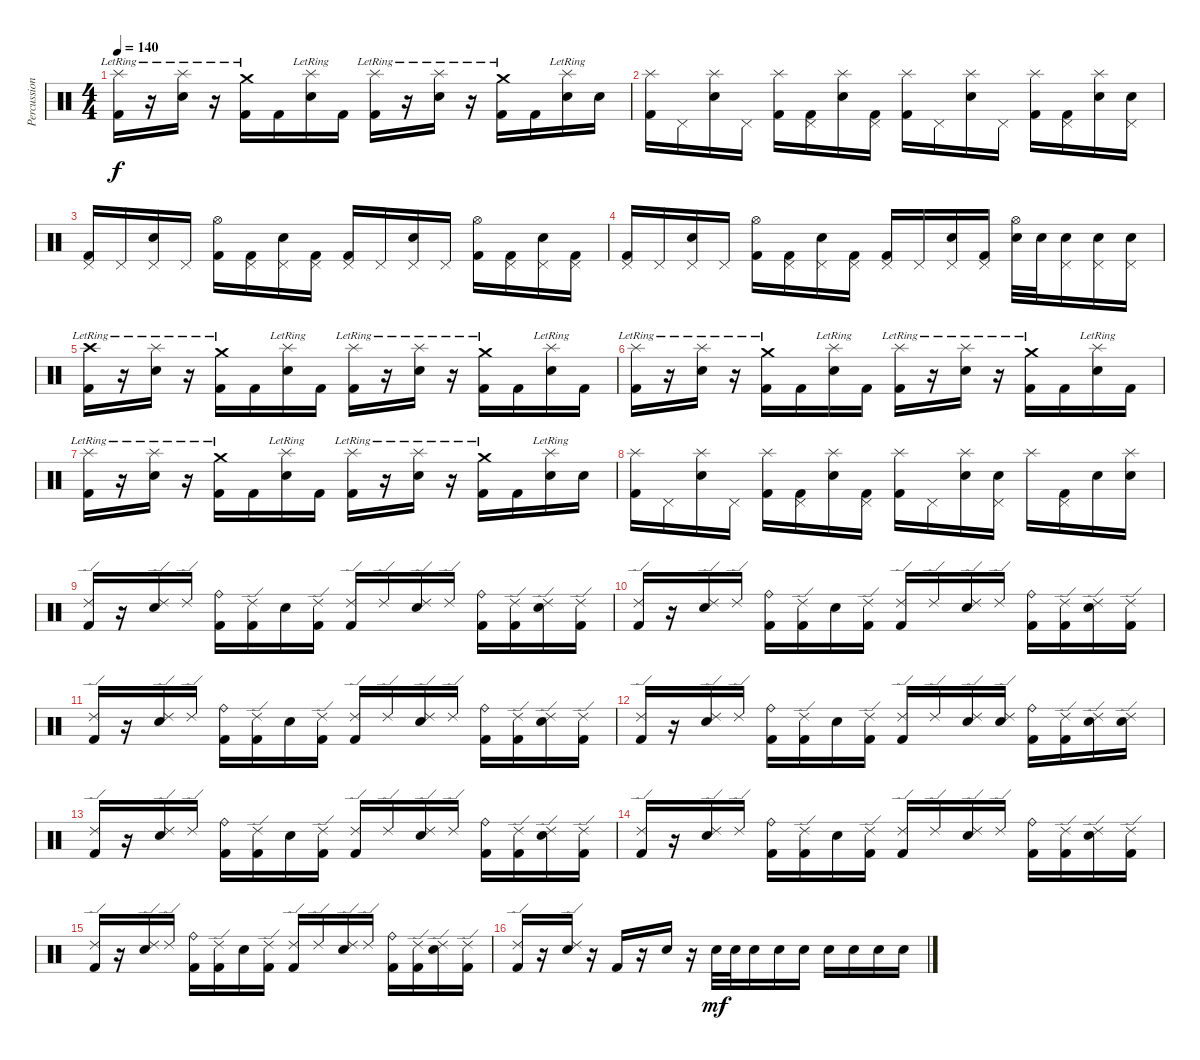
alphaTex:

\track ("Percussion" "Percussion") {instrument percussion}
\staff {score}
\articulation defaults
\ts (4 4)
\tempo 140
\clef neutral
\ks c
("Splash (hit)"{lr} "Kick (hit) 2").16{dy f} r.16 ("Splash (hit)"{lr} "Electric Snare (hit)").16 r.16 ("Crash medium (hit)"{lr} "Kick (hit) 2").16 "Kick (hit) 2".16 ("Splash (hit)"{lr} "Electric Snare (hit)").16 "Kick (hit) 2".16 ("Splash (hit)"{lr} "Kick (hit) 2").16 r.16 ("Splash (hit)"{lr} "Electric Snare (hit)").16 r.16 ("Crash medium (hit)"{lr} "Kick (hit) 2").16 "Kick (hit) 2".16 ("Splash (hit)"{lr} "Electric Snare (hit)").16 "Electric Snare (hit)".16 |
("Splash (hit)" "Kick (hit) 2").16 "Pedal Hi-Hat (hit)".16 ("Splash (hit)" "Electric Snare (hit)").16 "Pedal Hi-Hat (hit)".16 ("Splash (hit)" "Kick (hit) 2").16 ("Pedal Hi-Hat (hit)" "Kick (hit) 2").16 ("Splash (hit)" "Electric Snare (hit)").16 ("Pedal Hi-Hat (hit)" "Kick (hit) 2").16 ("Splash (hit)" "Kick (hit) 2").16 "Pedal Hi-Hat (hit)".16 ("Splash (hit)" "Electric Snare (hit)").16 "Pedal Hi-Hat (hit)".16 ("Splash (hit)" "Kick (hit) 2").16 ("Pedal Hi-Hat (hit)" "Kick (hit) 2").16 ("Splash (hit)" "Electric Snare (hit)").16 ("Pedal Hi-Hat (hit)" "Electric Snare (hit)").16 |
("Pedal Hi-Hat (hit)" "Kick (hit) 2").16 "Pedal Hi-Hat (hit)".16 ("Pedal Hi-Hat (hit)" "Electric Snare (hit)").16 "Pedal Hi-Hat (hit)".16 ("Hi-Hat (open)" "Kick (hit) 2").16 ("Pedal Hi-Hat (hit)" "Kick (hit) 2").16 ("Pedal Hi-Hat (hit)" "Electric Snare (hit)").16 ("Pedal Hi-Hat (hit)" "Kick (hit) 2").16 ("Pedal Hi-Hat (hit)" "Kick (hit) 2").16 "Pedal Hi-Hat (hit)".16 ("Pedal Hi-Hat (hit)" "Electric Snare (hit)").16 "Pedal Hi-Hat (hit)".16 ("Hi-Hat (open)" "Kick (hit) 2").16 ("Pedal Hi-Hat (hit)" "Kick (hit) 2").16 ("Pedal Hi-Hat (hit)" "Electric Snare (hit)").16 ("Pedal Hi-Hat (hit)" "Kick (hit) 2").16 |
("Pedal Hi-Hat (hit)" "Kick (hit) 2").16 "Pedal Hi-Hat (hit)".16 ("Pedal Hi-Hat (hit)" "Electric Snare (hit)").16 "Pedal Hi-Hat (hit)".16 ("Hi-Hat (open)" "Kick (hit) 2").16 ("Pedal Hi-Hat (hit)" "Kick (hit) 2").16 ("Pedal Hi-Hat (hit)" "Electric Snare (hit)").16 ("Pedal Hi-Hat (hit)" "Kick (hit) 2").16 ("Pedal Hi-Hat (hit)" "Kick (hit) 2").16 "Pedal Hi-Hat (hit)".16 ("Pedal Hi-Hat (hit)" "Electric Snare (hit)").16 ("Pedal Hi-Hat (hit)" "Kick (hit) 2").16 ("Hi-Hat (open)" "Electric Snare (hit)").32 "Electric Snare (hit)".32 ("Pedal Hi-Hat (hit)" "Electric Snare (hit)").16 ("Pedal Hi-Hat (hit)" "Electric Snare (hit)").16 ("Pedal Hi-Hat (hit)" "Electric Snare (hit)").16 |
("Crash high (hit)"{lr} "Kick (hit) 2").16 r.16 ("Splash (hit)"{lr} "Electric Snare (hit)").16 r.16 ("Crash medium (hit)"{lr} "Kick (hit) 2").16 "Kick (hit) 2".16 ("Splash (hit)"{lr} "Electric Snare (hit)").16 "Kick (hit) 2".16 ("Splash (hit)"{lr} "Kick (hit) 2").16 r.16 ("Splash (hit)"{lr} "Electric Snare (hit)").16 r.16 ("Crash medium (hit)"{lr} "Kick (hit) 2").16 "Kick (hit) 2".16 ("Splash (hit)"{lr} "Electric Snare (hit)").16 "Kick (hit) 2".16 |
("Splash (hit)"{lr} "Kick (hit) 2").16 r.16 ("Splash (hit)"{lr} "Electric Snare (hit)").16 r.16 ("Crash medium (hit)"{lr} "Kick (hit) 2").16 "Kick (hit) 2".16 ("Splash (hit)"{lr} "Electric Snare (hit)").16 "Kick (hit) 2".16 ("Splash (hit)"{lr} "Kick (hit) 2").16 r.16 ("Splash (hit)"{lr} "Electric Snare (hit)").16 r.16 ("Crash medium (hit)"{lr} "Kick (hit) 2").16 "Kick (hit) 2".16 ("Splash (hit)"{lr} "Electric Snare (hit)").16 "Kick (hit) 2".16 |
("Splash (hit)"{lr} "Kick (hit) 2").16 r.16 ("Splash (hit)"{lr} "Electric Snare (hit)").16 r.16 ("Crash medium (hit)"{lr} "Kick (hit) 2").16 "Kick (hit) 2".16 ("Splash (hit)"{lr} "Electric Snare (hit)").16 "Kick (hit) 2".16 ("Splash (hit)"{lr} "Kick (hit) 2").16 r.16 ("Splash (hit)"{lr} "Electric Snare (hit)").16 r.16 ("Crash medium (hit)"{lr} "Kick (hit) 2").16 "Kick (hit) 2".16 ("Splash (hit)"{lr} "Electric Snare (hit)").16 "Electric Snare (hit)".16 |
("Splash (hit)" "Kick (hit) 2").16 "Pedal Hi-Hat (hit)".16 ("Splash (hit)" "Electric Snare (hit)").16 "Pedal Hi-Hat (hit)".16 ("Splash (hit)" "Kick (hit) 2").16 ("Pedal Hi-Hat (hit)" "Kick (hit) 2").16 ("Splash (hit)" "Electric Snare (hit)").16 ("Pedal Hi-Hat (hit)" "Kick (hit) 2").16 ("Splash (hit)" "Kick (hit) 2").16 "Pedal Hi-Hat (hit)".16 ("Splash (hit)" "Electric Snare (hit)").16 ("Pedal Hi-Hat (hit)" "Electric Snare (hit)").16 "Splash (hit)".16 ("Pedal Hi-Hat (hit)" "Kick (hit) 2").16 "Electric Snare (hit)".16 ("Splash (hit)" "Electric Snare (hit)").16 |
("Ride (edge) 2" "Kick (hit) 2").16 r.16 ("Ride (edge) 2" "Electric Snare (hit)").16 "Ride (edge) 2".16 ("Ride (bell)" "Kick (hit) 2").16 ("Ride (edge) 2" "Kick (hit) 2").16 "Electric Snare (hit)".16 ("Ride (edge) 2" "Kick (hit) 2").16 ("Ride (edge) 2" "Kick (hit) 2").16 "Ride (edge) 2".16 ("Ride (edge) 2" "Electric Snare (hit)").16 "Ride (edge) 2".16 ("Ride (bell)" "Kick (hit) 2").16 ("Ride (edge) 2" "Kick (hit) 2").16 ("Ride (edge) 2" "Electric Snare (hit)").16 ("Ride (edge) 2" "Kick (hit) 2").16 |
("Ride (edge) 2" "Kick (hit) 2").16 r.16 ("Ride (edge) 2" "Electric Snare (hit)").16 "Ride (edge) 2".16 ("Ride (bell)" "Kick (hit) 2").16 ("Ride (edge) 2" "Kick (hit) 2").16 "Electric Snare (hit)".16 ("Ride (edge) 2" "Kick (hit) 2").16 ("Ride (edge) 2" "Kick (hit) 2").16 "Ride (edge) 2".16 ("Ride (edge) 2" "Electric Snare (hit)").16 "Ride (edge) 2".16 ("Ride (bell)" "Kick (hit) 2").16 ("Ride (edge) 2" "Kick (hit) 2").16 ("Ride (edge) 2" "Electric Snare (hit)").16 ("Ride (edge) 2" "Kick (hit) 2").16 |
("Ride (edge) 2" "Kick (hit) 2").16 r.16 ("Ride (edge) 2" "Electric Snare (hit)").16 "Ride (edge) 2".16 ("Ride (bell)" "Kick (hit) 2").16 ("Ride (edge) 2" "Kick (hit) 2").16 "Electric Snare (hit)".16 ("Ride (edge) 2" "Kick (hit) 2").16 ("Ride (edge) 2" "Kick (hit) 2").16 "Ride (edge) 2".16 ("Ride (edge) 2" "Electric Snare (hit)").16 "Ride (edge) 2".16 ("Ride (bell)" "Kick (hit) 2").16 ("Ride (edge) 2" "Kick (hit) 2").16 ("Ride (edge) 2" "Electric Snare (hit)").16 ("Ride (edge) 2" "Kick (hit) 2").16 |
("Ride (edge) 2" "Kick (hit) 2").16 r.16 ("Ride (edge) 2" "Electric Snare (hit)").16 "Ride (edge) 2".16 ("Ride (bell)" "Kick (hit) 2").16 ("Ride (edge) 2" "Kick (hit) 2").16 "Electric Snare (hit)".16 ("Ride (edge) 2" "Kick (hit) 2").16 ("Ride (edge) 2" "Kick (hit) 2").16 "Ride (edge) 2".16 ("Ride (edge) 2" "Electric Snare (hit)").16 ("Ride (edge) 2" "Electric Snare (hit)").16 ("Ride (bell)" "Kick (hit) 2").16 ("Ride (edge) 2" "Kick (hit) 2").16 ("Ride (edge) 2" "Electric Snare (hit)").16 ("Ride (edge) 2" "Electric Snare (hit)").16 |
("Ride (edge) 2" "Kick (hit) 2").16 r.16 ("Ride (edge) 2" "Electric Snare (hit)").16 "Ride (edge) 2".16 ("Ride (bell)" "Kick (hit) 2").16 ("Ride (edge) 2" "Kick (hit) 2").16 "Electric Snare (hit)".16 ("Ride (edge) 2" "Kick (hit) 2").16 ("Ride (edge) 2" "Kick (hit) 2").16 "Ride (edge) 2".16 ("Ride (edge) 2" "Electric Snare (hit)").16 "Ride (edge) 2".16 ("Ride (bell)" "Kick (hit) 2").16 ("Ride (edge) 2" "Kick (hit) 2").16 ("Ride (edge) 2" "Electric Snare (hit)").16 ("Ride (edge) 2" "Kick (hit) 2").16 |
("Ride (edge) 2" "Kick (hit) 2").16 r.16 ("Ride (edge) 2" "Electric Snare (hit)").16 "Ride (edge) 2".16 ("Ride (bell)" "Kick (hit) 2").16 ("Ride (edge) 2" "Kick (hit) 2").16 "Electric Snare (hit)".16 ("Ride (edge) 2" "Kick (hit) 2").16 ("Ride (edge) 2" "Kick (hit) 2").16 "Ride (edge) 2".16 ("Ride (edge) 2" "Electric Snare (hit)").16 "Ride (edge) 2".16 ("Ride (bell)" "Kick (hit) 2").16 ("Ride (edge) 2" "Kick (hit) 2").16 ("Ride (edge) 2" "Electric Snare (hit)").16 ("Ride (edge) 2" "Kick (hit) 2").16 |
("Ride (edge) 2" "Kick (hit) 2").16 r.16 ("Ride (edge) 2" "Electric Snare (hit)").16 "Ride (edge) 2".16 ("Ride (bell)" "Kick (hit) 2").16 ("Ride (edge) 2" "Kick (hit) 2").16 "Electric Snare (hit)".16 ("Ride (edge) 2" "Kick (hit) 2").16 ("Ride (edge) 2" "Kick (hit) 2").16 "Ride (edge) 2".16 ("Ride (edge) 2" "Electric Snare (hit)").16 "Ride (edge) 2".16 ("Ride (bell)" "Kick (hit) 2").16 ("Ride (edge) 2" "Kick (hit) 2").16 ("Ride (edge) 2" "Electric Snare (hit)").16 ("Ride (edge) 2" "Kick (hit) 2").16 |
("Ride (edge) 2" "Kick (hit) 2").16 r.16 ("Ride (edge) 2" "Electric Snare (hit)").16 r.16 "Kick (hit) 2".16 r.16 "Electric Snare (hit)".16 r.16 "Snare (hit) 2".32{dy mf} "Snare (hit) 2".32 "Snare (hit) 2".16 "Snare (hit) 2".16 "Snare (hit) 2".16 "Snare (hit) 2".16 "Snare (hit) 2".16 "Snare (hit) 2".16 "Snare (hit) 2".16
